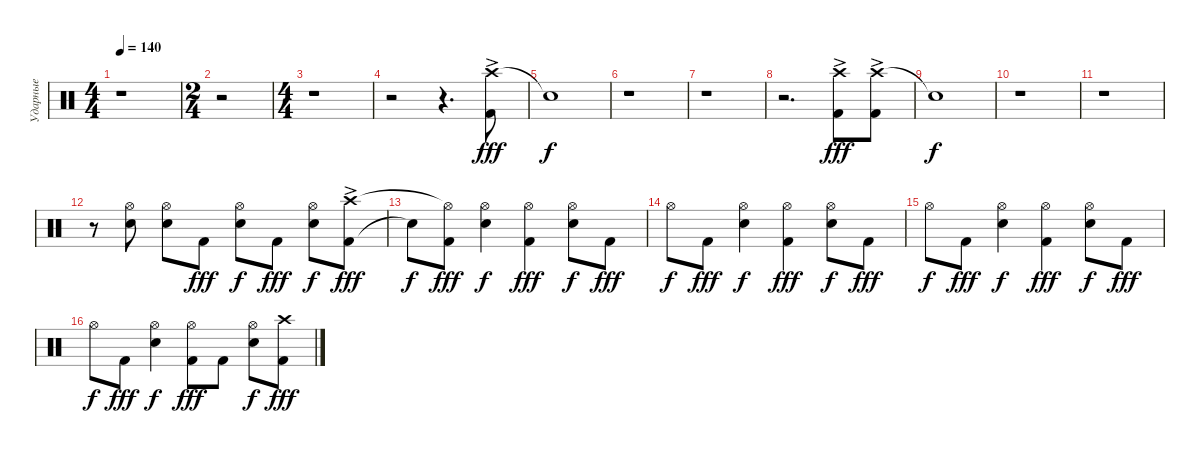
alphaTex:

\track ("Ударные" "Ударные") {instrument percussion}
\staff {score}
\articulation defaults
\ts (4 4)
\tempo 140
\clef neutral
\ks c
r.1{dy fff} |
\ts (2 4)
r.2 |
\ts (4 4)
r.1 |
r.2 r.4{d} ("Crash high (hit)"{ac} "Kick (hit) 2"{ac}).8 |
"Snare (hit)"{t}.1{dy f} |
r.1 |
r.1 |
r.2{d} ("Crash high (hit)"{ac} "Kick (hit) 2"{ac}).8{dy fff} ("Crash high (hit)"{ac} "Kick (hit) 2"{ac}).8 |
"Snare (hit)"{t}.1{dy f} |
r.1 |
r.1 |
r.8 ("Snare (hit) 2" "Hi-Hat (open)").8 ("Snare (hit) 2" "Hi-Hat (open)").8 "Kick (hit) 2".8{dy fff} ("Hi-Hat (open)" "Snare (hit) 2").8{dy f} "Kick (hit) 2".8{dy fff} ("Snare (hit) 2" "Hi-Hat (open)").8{dy f} ("Kick (hit) 2"{ac} "Crash high (hit)"{ac}).8{dy fff} |
"Snare (hit)"{t}.8{dy f} ("Kick (hit) 2" "Hi-Hat (open)"{t}).8{dy fff} ("Snare (hit) 2" "Hi-Hat (open)").4{dy f} ("Kick (hit) 2" "Hi-Hat (open)").4{dy fff} ("Snare (hit) 2" "Hi-Hat (open)").8{dy f} "Kick (hit) 2".8{dy fff} |
"Hi-Hat (open)".8{dy f} "Kick (hit) 2".8{dy fff} ("Snare (hit) 2" "Hi-Hat (open)").4{dy f} ("Kick (hit) 2" "Hi-Hat (open)").4{dy fff} ("Snare (hit) 2" "Hi-Hat (open)").8{dy f} "Kick (hit) 2".8{dy fff} |
"Hi-Hat (open)".8{dy f} "Kick (hit) 2".8{dy fff} ("Snare (hit) 2" "Hi-Hat (open)").4{dy f} ("Kick (hit) 2" "Hi-Hat (open)").4{dy fff} ("Snare (hit) 2" "Hi-Hat (open)").8{dy f} "Kick (hit) 2".8{dy fff} |
"Hi-Hat (open)".8{dy f} "Kick (hit) 2".8{dy fff} ("Snare (hit) 2" "Hi-Hat (open)").4{dy f} ("Kick (hit) 2" "Hi-Hat (open)").8{dy fff} "Kick (hit) 2".8 ("Snare (hit) 2" "Hi-Hat (open)").8{dy f} ("Kick (hit) 2" "Crash high (hit)").8{dy fff}
